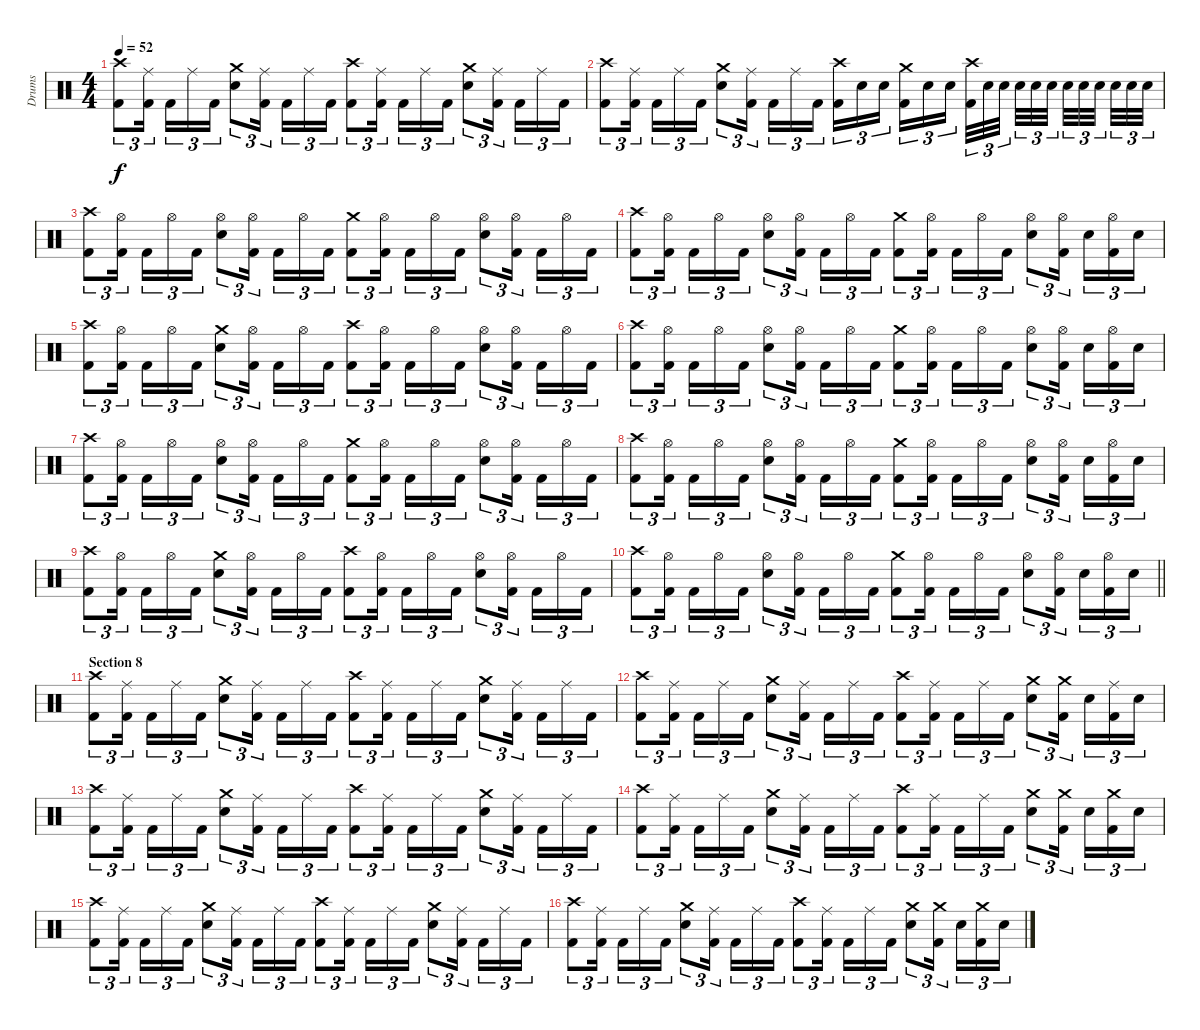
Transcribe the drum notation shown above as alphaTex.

\track ("Drums" "Drums") {instrument percussion}
\staff {score}
\articulation defaults
\ts (4 4)
\tempo 52
\clef neutral
\ks c
("Crash high (hit)" "Kick (hit) 2").8{tu (3 2) dy f} ("Ride (middle)" "Kick (hit) 2").16{tu (3 2) beam splitsecondary} "Kick (hit) 2".16{tu (3 2)} "Ride (middle)".16{tu (3 2)} "Kick (hit) 2".16{tu (3 2)} ("Crash medium (hit)" "Electric Snare (hit)").8{tu (3 2)} ("Ride (middle)" "Kick (hit) 2").16{tu (3 2) beam splitsecondary} "Kick (hit) 2".16{tu (3 2)} "Ride (middle)".16{tu (3 2)} "Kick (hit) 2".16{tu (3 2)} ("Crash high (hit)" "Kick (hit) 2").8{tu (3 2)} ("Ride (middle)" "Kick (hit) 2").16{tu (3 2) beam splitsecondary} "Kick (hit) 2".16{tu (3 2)} "Ride (middle)".16{tu (3 2)} "Kick (hit) 2".16{tu (3 2)} ("Crash medium (hit)" "Electric Snare (hit)").8{tu (3 2)} ("Ride (middle)" "Kick (hit) 2").16{tu (3 2) beam splitsecondary} "Kick (hit) 2".16{tu (3 2)} "Ride (middle)".16{tu (3 2)} "Kick (hit) 2".16{tu (3 2)} |
("Crash high (hit)" "Kick (hit) 2").8{tu (3 2)} ("Ride (middle)" "Kick (hit) 2").16{tu (3 2) beam splitsecondary} "Kick (hit) 2".16{tu (3 2)} "Ride (middle)".16{tu (3 2)} "Kick (hit) 2".16{tu (3 2)} ("Crash medium (hit)" "Electric Snare (hit)").8{tu (3 2)} ("Ride (middle)" "Kick (hit) 2").16{tu (3 2) beam splitsecondary} "Kick (hit) 2".16{tu (3 2)} "Ride (middle)".16{tu (3 2)} "Kick (hit) 2".16{tu (3 2)} ("Crash high (hit)" "Kick (hit) 2").16{tu (3 2)} "Electric Snare (hit)".16{tu (3 2)} "Electric Snare (hit)".16{tu (3 2) beam splitsecondary} ("Crash medium (hit)" "Kick (hit) 2").16{tu (3 2)} "Electric Snare (hit)".16{tu (3 2)} "Electric Snare (hit)".16{tu (3 2)} ("Crash high (hit)" "Kick (hit) 2").32{tu (3 2)} "Electric Snare (hit)".32{tu (3 2)} "Electric Snare (hit)".32{tu (3 2) beam splitsecondary} "Electric Snare (hit)".32{tu (3 2)} "Electric Snare (hit)".32{tu (3 2)} "Electric Snare (hit)".32{tu (3 2) beam splitsecondary} "Electric Snare (hit)".32{tu (3 2)} "Electric Snare (hit)".32{tu (3 2)} "Electric Snare (hit)".32{tu (3 2) beam splitsecondary} "Electric Snare (hit)".32{tu (3 2)} "Electric Snare (hit)".32{tu (3 2)} "Electric Snare (hit)".32{tu (3 2)} |
("Crash high (hit)" "Kick (hit) 2").8{tu (3 2)} ("Hi-Hat (open)" "Kick (hit) 2").16{tu (3 2) beam splitsecondary} "Kick (hit) 2".16{tu (3 2)} "Hi-Hat (open)".16{tu (3 2)} "Kick (hit) 2".16{tu (3 2)} ("Hi-Hat (open)" "Electric Snare (hit)").8{tu (3 2)} ("Hi-Hat (open)" "Kick (hit) 2").16{tu (3 2) beam splitsecondary} "Kick (hit) 2".16{tu (3 2)} "Hi-Hat (open)".16{tu (3 2)} "Kick (hit) 2".16{tu (3 2)} ("Crash medium (hit)" "Kick (hit) 2").8{tu (3 2)} ("Hi-Hat (open)" "Kick (hit) 2").16{tu (3 2) beam splitsecondary} "Kick (hit) 2".16{tu (3 2)} "Hi-Hat (open)".16{tu (3 2)} "Kick (hit) 2".16{tu (3 2)} ("Hi-Hat (open)" "Electric Snare (hit)").8{tu (3 2)} ("Hi-Hat (open)" "Kick (hit) 2").16{tu (3 2) beam splitsecondary} "Kick (hit) 2".16{tu (3 2)} "Hi-Hat (open)".16{tu (3 2)} "Kick (hit) 2".16{tu (3 2)} |
("Crash high (hit)" "Kick (hit) 2").8{tu (3 2)} ("Hi-Hat (open)" "Kick (hit) 2").16{tu (3 2) beam splitsecondary} "Kick (hit) 2".16{tu (3 2)} "Hi-Hat (open)".16{tu (3 2)} "Kick (hit) 2".16{tu (3 2)} ("Hi-Hat (open)" "Electric Snare (hit)").8{tu (3 2)} ("Hi-Hat (open)" "Kick (hit) 2").16{tu (3 2) beam splitsecondary} "Kick (hit) 2".16{tu (3 2)} "Hi-Hat (open)".16{tu (3 2)} "Kick (hit) 2".16{tu (3 2)} ("Crash medium (hit)" "Kick (hit) 2").8{tu (3 2)} ("Hi-Hat (open)" "Kick (hit) 2").16{tu (3 2) beam splitsecondary} "Kick (hit) 2".16{tu (3 2)} "Hi-Hat (open)".16{tu (3 2)} "Kick (hit) 2".16{tu (3 2)} ("Hi-Hat (open)" "Electric Snare (hit)").8{tu (3 2)} ("Hi-Hat (open)" "Kick (hit) 2").16{tu (3 2) beam splitsecondary} "Electric Snare (hit)".16{tu (3 2)} ("Hi-Hat (open)" "Kick (hit) 2").16{tu (3 2)} "Electric Snare (hit)".16{tu (3 2)} |
("Crash high (hit)" "Kick (hit) 2").8{tu (3 2)} ("Hi-Hat (open)" "Kick (hit) 2").16{tu (3 2) beam splitsecondary} "Kick (hit) 2".16{tu (3 2)} "Hi-Hat (open)".16{tu (3 2)} "Kick (hit) 2".16{tu (3 2)} ("Crash medium (hit)" "Electric Snare (hit)").8{tu (3 2)} ("Hi-Hat (open)" "Kick (hit) 2").16{tu (3 2) beam splitsecondary} "Kick (hit) 2".16{tu (3 2)} "Hi-Hat (open)".16{tu (3 2)} "Kick (hit) 2".16{tu (3 2)} ("Crash high (hit)" "Kick (hit) 2").8{tu (3 2)} ("Hi-Hat (open)" "Kick (hit) 2").16{tu (3 2) beam splitsecondary} "Kick (hit) 2".16{tu (3 2)} "Hi-Hat (open)".16{tu (3 2)} "Kick (hit) 2".16{tu (3 2)} ("Hi-Hat (open)" "Electric Snare (hit)").8{tu (3 2)} ("Hi-Hat (open)" "Kick (hit) 2").16{tu (3 2) beam splitsecondary} "Kick (hit) 2".16{tu (3 2)} "Hi-Hat (open)".16{tu (3 2)} "Kick (hit) 2".16{tu (3 2)} |
("Crash high (hit)" "Kick (hit) 2").8{tu (3 2)} ("Hi-Hat (open)" "Kick (hit) 2").16{tu (3 2) beam splitsecondary} "Kick (hit) 2".16{tu (3 2)} "Hi-Hat (open)".16{tu (3 2)} "Kick (hit) 2".16{tu (3 2)} ("Hi-Hat (open)" "Electric Snare (hit)").8{tu (3 2)} ("Hi-Hat (open)" "Kick (hit) 2").16{tu (3 2) beam splitsecondary} "Kick (hit) 2".16{tu (3 2)} "Hi-Hat (open)".16{tu (3 2)} "Kick (hit) 2".16{tu (3 2)} ("Crash medium (hit)" "Kick (hit) 2").8{tu (3 2)} ("Hi-Hat (open)" "Kick (hit) 2").16{tu (3 2) beam splitsecondary} "Kick (hit) 2".16{tu (3 2)} "Hi-Hat (open)".16{tu (3 2)} "Kick (hit) 2".16{tu (3 2)} ("Hi-Hat (open)" "Electric Snare (hit)").8{tu (3 2)} ("Hi-Hat (open)" "Kick (hit) 2").16{tu (3 2) beam splitsecondary} "Electric Snare (hit)".16{tu (3 2)} ("Hi-Hat (open)" "Kick (hit) 2").16{tu (3 2)} "Electric Snare (hit)".16{tu (3 2)} |
("Crash high (hit)" "Kick (hit) 2").8{tu (3 2)} ("Hi-Hat (open)" "Kick (hit) 2").16{tu (3 2) beam splitsecondary} "Kick (hit) 2".16{tu (3 2)} "Hi-Hat (open)".16{tu (3 2)} "Kick (hit) 2".16{tu (3 2)} ("Hi-Hat (open)" "Electric Snare (hit)").8{tu (3 2)} ("Hi-Hat (open)" "Kick (hit) 2").16{tu (3 2) beam splitsecondary} "Kick (hit) 2".16{tu (3 2)} "Hi-Hat (open)".16{tu (3 2)} "Kick (hit) 2".16{tu (3 2)} ("Crash medium (hit)" "Kick (hit) 2").8{tu (3 2)} ("Hi-Hat (open)" "Kick (hit) 2").16{tu (3 2) beam splitsecondary} "Kick (hit) 2".16{tu (3 2)} "Hi-Hat (open)".16{tu (3 2)} "Kick (hit) 2".16{tu (3 2)} ("Hi-Hat (open)" "Electric Snare (hit)").8{tu (3 2)} ("Hi-Hat (open)" "Kick (hit) 2").16{tu (3 2) beam splitsecondary} "Kick (hit) 2".16{tu (3 2)} "Hi-Hat (open)".16{tu (3 2)} "Kick (hit) 2".16{tu (3 2)} |
("Crash high (hit)" "Kick (hit) 2").8{tu (3 2)} ("Hi-Hat (open)" "Kick (hit) 2").16{tu (3 2) beam splitsecondary} "Kick (hit) 2".16{tu (3 2)} "Hi-Hat (open)".16{tu (3 2)} "Kick (hit) 2".16{tu (3 2)} ("Hi-Hat (open)" "Electric Snare (hit)").8{tu (3 2)} ("Hi-Hat (open)" "Kick (hit) 2").16{tu (3 2) beam splitsecondary} "Kick (hit) 2".16{tu (3 2)} "Hi-Hat (open)".16{tu (3 2)} "Kick (hit) 2".16{tu (3 2)} ("Crash medium (hit)" "Kick (hit) 2").8{tu (3 2)} ("Hi-Hat (open)" "Kick (hit) 2").16{tu (3 2) beam splitsecondary} "Kick (hit) 2".16{tu (3 2)} "Hi-Hat (open)".16{tu (3 2)} "Kick (hit) 2".16{tu (3 2)} ("Hi-Hat (open)" "Electric Snare (hit)").8{tu (3 2)} ("Hi-Hat (open)" "Kick (hit) 2").16{tu (3 2) beam splitsecondary} "Electric Snare (hit)".16{tu (3 2)} ("Hi-Hat (open)" "Kick (hit) 2").16{tu (3 2)} "Electric Snare (hit)".16{tu (3 2)} |
("Crash high (hit)" "Kick (hit) 2").8{tu (3 2)} ("Hi-Hat (open)" "Kick (hit) 2").16{tu (3 2) beam splitsecondary} "Kick (hit) 2".16{tu (3 2)} "Hi-Hat (open)".16{tu (3 2)} "Kick (hit) 2".16{tu (3 2)} ("Crash medium (hit)" "Electric Snare (hit)").8{tu (3 2)} ("Hi-Hat (open)" "Kick (hit) 2").16{tu (3 2) beam splitsecondary} "Kick (hit) 2".16{tu (3 2)} "Hi-Hat (open)".16{tu (3 2)} "Kick (hit) 2".16{tu (3 2)} ("Crash high (hit)" "Kick (hit) 2").8{tu (3 2)} ("Hi-Hat (open)" "Kick (hit) 2").16{tu (3 2) beam splitsecondary} "Kick (hit) 2".16{tu (3 2)} "Hi-Hat (open)".16{tu (3 2)} "Kick (hit) 2".16{tu (3 2)} ("Hi-Hat (open)" "Electric Snare (hit)").8{tu (3 2)} ("Hi-Hat (open)" "Kick (hit) 2").16{tu (3 2) beam splitsecondary} "Kick (hit) 2".16{tu (3 2)} "Hi-Hat (open)".16{tu (3 2)} "Kick (hit) 2".16{tu (3 2)} |
\barLineRight lightlight
("Crash high (hit)" "Kick (hit) 2").8{tu (3 2)} ("Hi-Hat (open)" "Kick (hit) 2").16{tu (3 2) beam splitsecondary} "Kick (hit) 2".16{tu (3 2)} "Hi-Hat (open)".16{tu (3 2)} "Kick (hit) 2".16{tu (3 2)} ("Hi-Hat (open)" "Electric Snare (hit)").8{tu (3 2)} ("Hi-Hat (open)" "Kick (hit) 2").16{tu (3 2) beam splitsecondary} "Kick (hit) 2".16{tu (3 2)} "Hi-Hat (open)".16{tu (3 2)} "Kick (hit) 2".16{tu (3 2)} ("Crash medium (hit)" "Kick (hit) 2").8{tu (3 2)} ("Hi-Hat (open)" "Kick (hit) 2").16{tu (3 2) beam splitsecondary} "Kick (hit) 2".16{tu (3 2)} "Hi-Hat (open)".16{tu (3 2)} "Kick (hit) 2".16{tu (3 2)} ("Hi-Hat (open)" "Electric Snare (hit)").8{tu (3 2)} ("Hi-Hat (open)" "Kick (hit) 2").16{tu (3 2) beam splitsecondary} "Electric Snare (hit)".16{tu (3 2)} ("Hi-Hat (open)" "Kick (hit) 2").16{tu (3 2)} "Electric Snare (hit)".16{tu (3 2)} |
\section ("" "Section 8")
("Crash high (hit)" "Kick (hit) 2").8{tu (3 2)} ("Ride (middle)" "Kick (hit) 2").16{tu (3 2) beam splitsecondary} "Kick (hit) 2".16{tu (3 2)} "Ride (middle)".16{tu (3 2)} "Kick (hit) 2".16{tu (3 2)} ("Crash medium (hit)" "Electric Snare (hit)").8{tu (3 2)} ("Ride (middle)" "Kick (hit) 2").16{tu (3 2) beam splitsecondary} "Kick (hit) 2".16{tu (3 2)} "Ride (middle)".16{tu (3 2)} "Kick (hit) 2".16{tu (3 2)} ("Crash high (hit)" "Kick (hit) 2").8{tu (3 2)} ("Ride (middle)" "Kick (hit) 2").16{tu (3 2) beam splitsecondary} "Kick (hit) 2".16{tu (3 2)} "Ride (middle)".16{tu (3 2)} "Kick (hit) 2".16{tu (3 2)} ("Crash medium (hit)" "Electric Snare (hit)").8{tu (3 2)} ("Ride (middle)" "Kick (hit) 2").16{tu (3 2) beam splitsecondary} "Kick (hit) 2".16{tu (3 2)} "Ride (middle)".16{tu (3 2)} "Kick (hit) 2".16{tu (3 2)} |
("Crash high (hit)" "Kick (hit) 2").8{tu (3 2)} ("Ride (middle)" "Kick (hit) 2").16{tu (3 2) beam splitsecondary} "Kick (hit) 2".16{tu (3 2)} "Ride (middle)".16{tu (3 2)} "Kick (hit) 2".16{tu (3 2)} ("Crash medium (hit)" "Electric Snare (hit)").8{tu (3 2)} ("Ride (middle)" "Kick (hit) 2").16{tu (3 2) beam splitsecondary} "Kick (hit) 2".16{tu (3 2)} "Ride (middle)".16{tu (3 2)} "Kick (hit) 2".16{tu (3 2)} ("Crash high (hit)" "Kick (hit) 2").8{tu (3 2)} ("Ride (middle)" "Kick (hit) 2").16{tu (3 2) beam splitsecondary} "Kick (hit) 2".16{tu (3 2)} "Ride (middle)".16{tu (3 2)} "Kick (hit) 2".16{tu (3 2)} ("Crash medium (hit)" "Electric Snare (hit)").8{tu (3 2)} ("Crash medium (hit)" "Kick (hit) 2").16{tu (3 2) beam splitsecondary} "Electric Snare (hit)".16{tu (3 2)} ("Ride (middle)" "Kick (hit) 2").16{tu (3 2)} "Electric Snare (hit)".16{tu (3 2)} |
("Crash high (hit)" "Kick (hit) 2").8{tu (3 2)} ("Ride (middle)" "Kick (hit) 2").16{tu (3 2) beam splitsecondary} "Kick (hit) 2".16{tu (3 2)} "Ride (middle)".16{tu (3 2)} "Kick (hit) 2".16{tu (3 2)} ("Crash medium (hit)" "Electric Snare (hit)").8{tu (3 2)} ("Ride (middle)" "Kick (hit) 2").16{tu (3 2) beam splitsecondary} "Kick (hit) 2".16{tu (3 2)} "Ride (middle)".16{tu (3 2)} "Kick (hit) 2".16{tu (3 2)} ("Crash high (hit)" "Kick (hit) 2").8{tu (3 2)} ("Ride (middle)" "Kick (hit) 2").16{tu (3 2) beam splitsecondary} "Kick (hit) 2".16{tu (3 2)} "Ride (middle)".16{tu (3 2)} "Kick (hit) 2".16{tu (3 2)} ("Crash medium (hit)" "Electric Snare (hit)").8{tu (3 2)} ("Ride (middle)" "Kick (hit) 2").16{tu (3 2) beam splitsecondary} "Kick (hit) 2".16{tu (3 2)} "Ride (middle)".16{tu (3 2)} "Kick (hit) 2".16{tu (3 2)} |
("Crash high (hit)" "Kick (hit) 2").8{tu (3 2)} ("Ride (middle)" "Kick (hit) 2").16{tu (3 2) beam splitsecondary} "Kick (hit) 2".16{tu (3 2)} "Ride (middle)".16{tu (3 2)} "Kick (hit) 2".16{tu (3 2)} ("Crash medium (hit)" "Electric Snare (hit)").8{tu (3 2)} ("Ride (middle)" "Kick (hit) 2").16{tu (3 2) beam splitsecondary} "Kick (hit) 2".16{tu (3 2)} "Ride (middle)".16{tu (3 2)} "Kick (hit) 2".16{tu (3 2)} ("Crash high (hit)" "Kick (hit) 2").8{tu (3 2)} ("Ride (middle)" "Kick (hit) 2").16{tu (3 2) beam splitsecondary} "Kick (hit) 2".16{tu (3 2)} "Ride (middle)".16{tu (3 2)} "Kick (hit) 2".16{tu (3 2)} ("Crash medium (hit)" "Electric Snare (hit)").8{tu (3 2)} ("Crash medium (hit)" "Kick (hit) 2").16{tu (3 2) beam splitsecondary} "Electric Snare (hit)".16{tu (3 2)} ("Crash medium (hit)" "Kick (hit) 2").16{tu (3 2)} "Electric Snare (hit)".16{tu (3 2)} |
("Crash high (hit)" "Kick (hit) 2").8{tu (3 2)} ("Ride (middle)" "Kick (hit) 2").16{tu (3 2) beam splitsecondary} "Kick (hit) 2".16{tu (3 2)} "Ride (middle)".16{tu (3 2)} "Kick (hit) 2".16{tu (3 2)} ("Crash medium (hit)" "Electric Snare (hit)").8{tu (3 2)} ("Ride (middle)" "Kick (hit) 2").16{tu (3 2) beam splitsecondary} "Kick (hit) 2".16{tu (3 2)} "Ride (middle)".16{tu (3 2)} "Kick (hit) 2".16{tu (3 2)} ("Crash high (hit)" "Kick (hit) 2").8{tu (3 2)} ("Ride (middle)" "Kick (hit) 2").16{tu (3 2) beam splitsecondary} "Kick (hit) 2".16{tu (3 2)} "Ride (middle)".16{tu (3 2)} "Kick (hit) 2".16{tu (3 2)} ("Crash medium (hit)" "Electric Snare (hit)").8{tu (3 2)} ("Ride (middle)" "Kick (hit) 2").16{tu (3 2) beam splitsecondary} "Kick (hit) 2".16{tu (3 2)} "Ride (middle)".16{tu (3 2)} "Kick (hit) 2".16{tu (3 2)} |
("Crash high (hit)" "Kick (hit) 2").8{tu (3 2)} ("Ride (middle)" "Kick (hit) 2").16{tu (3 2) beam splitsecondary} "Kick (hit) 2".16{tu (3 2)} "Ride (middle)".16{tu (3 2)} "Kick (hit) 2".16{tu (3 2)} ("Crash medium (hit)" "Electric Snare (hit)").8{tu (3 2)} ("Ride (middle)" "Kick (hit) 2").16{tu (3 2) beam splitsecondary} "Kick (hit) 2".16{tu (3 2)} "Ride (middle)".16{tu (3 2)} "Kick (hit) 2".16{tu (3 2)} ("Crash high (hit)" "Kick (hit) 2").8{tu (3 2)} ("Ride (middle)" "Kick (hit) 2").16{tu (3 2) beam splitsecondary} "Kick (hit) 2".16{tu (3 2)} "Ride (middle)".16{tu (3 2)} "Kick (hit) 2".16{tu (3 2)} ("Crash medium (hit)" "Electric Snare (hit)").8{tu (3 2)} ("Crash medium (hit)" "Kick (hit) 2").16{tu (3 2) beam splitsecondary} "Electric Snare (hit)".16{tu (3 2)} ("Crash medium (hit)" "Kick (hit) 2").16{tu (3 2)} "Electric Snare (hit)".16{tu (3 2)}
